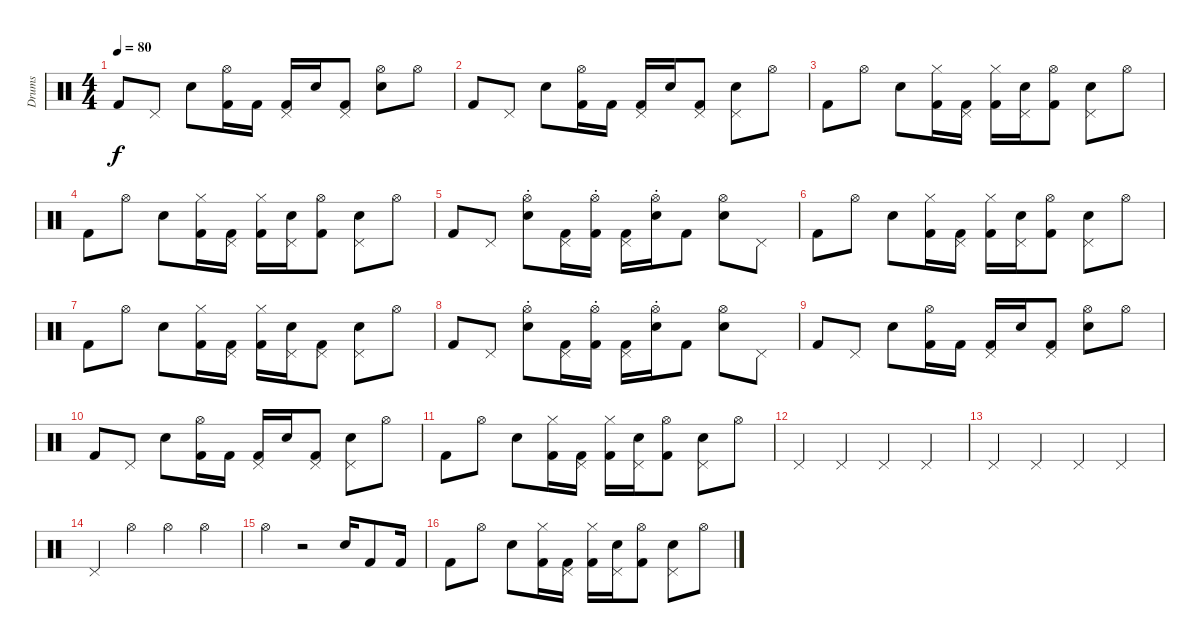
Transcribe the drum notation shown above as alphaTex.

\track ("Drums" "Drums") {instrument percussion}
\staff {score}
\articulation defaults
\ts (4 4)
\tempo 80
\clef neutral
\ks c "Kick (hit) 2".8{dy f} "Pedal Hi-Hat (hit)".8 "Snare (hit) 2".8
("Hi-Hat (open)" "Kick (hit) 2").16 "Kick (hit) 2".16 ("Pedal Hi-Hat (hit)" "Kick (hit) 2").16 "Snare (hit) 2".16 ("Pedal Hi-Hat (hit)" "Kick (hit) 2").8 ("Hi-Hat (open)" "Snare (hit) 2").8 "Hi-Hat (open)".8 |
"Kick (hit) 2".8 "Pedal Hi-Hat (hit)".8 "Snare (hit) 2".8 ("Hi-Hat (open)" "Kick (hit) 2").16 "Kick (hit) 2".16 ("Pedal Hi-Hat (hit)" "Kick (hit) 2").16 "Snare (hit) 2".16 ("Pedal Hi-Hat (hit)" "Kick (hit) 2").8 ("Pedal Hi-Hat (hit)" "Snare (hit) 2").8 "Hi-Hat (open)".8 |
"Kick (hit) 2".8 "Hi-Hat (open)".8 "Snare (hit) 2".8 ("Hi-Hat (closed)" "Kick (hit) 2").16 ("Pedal Hi-Hat (hit)" "Kick (hit) 2").16 ("Hi-Hat (closed)" "Kick (hit) 2").16 ("Pedal Hi-Hat (hit)" "Snare (hit) 2").16 ("Hi-Hat (open)" "Kick (hit) 2").8 ("Pedal Hi-Hat (hit)" "Snare (hit) 2").8 "Hi-Hat (open)".8 |
"Kick (hit) 2".8 "Hi-Hat (open)".8 "Snare (hit) 2".8 ("Hi-Hat (closed)" "Kick (hit) 2").16 ("Pedal Hi-Hat (hit)" "Kick (hit) 2").16 ("Hi-Hat (closed)" "Kick (hit) 2").16 ("Pedal Hi-Hat (hit)" "Snare (hit) 2").16 ("Hi-Hat (open)" "Kick (hit) 2").8 ("Pedal Hi-Hat (hit)" "Snare (hit) 2").8 "Hi-Hat (open)".8 |
"Kick (hit) 2".8 "Pedal Hi-Hat (hit)".8 ("Hi-Hat (open)"{st} "Snare (hit) 2").8 ("Pedal Hi-Hat (hit)" "Kick (hit) 2").16 ("Hi-Hat (open)"{st} "Kick (hit) 2").16 ("Pedal Hi-Hat (hit)" "Kick (hit) 2").16 ("Hi-Hat (open)"{st} "Snare (hit) 2").16 "Kick (hit) 2".8 ("Hi-Hat (open)" "Snare (hit) 2").8 "Pedal Hi-Hat (hit)".8 |
"Kick (hit) 2".8 "Hi-Hat (open)".8 "Snare (hit) 2".8 ("Hi-Hat (closed)" "Kick (hit) 2").16 ("Pedal Hi-Hat (hit)" "Kick (hit) 2").16 ("Hi-Hat (closed)" "Kick (hit) 2").16 ("Pedal Hi-Hat (hit)" "Snare (hit) 2").16 ("Hi-Hat (open)" "Kick (hit) 2").8 ("Pedal Hi-Hat (hit)" "Snare (hit) 2").8 "Hi-Hat (open)".8 |
"Kick (hit) 2".8 "Hi-Hat (open)".8 "Snare (hit) 2".8 ("Hi-Hat (closed)" "Kick (hit) 2").16 ("Pedal Hi-Hat (hit)" "Kick (hit) 2").16 ("Hi-Hat (closed)" "Kick (hit) 2").16 ("Pedal Hi-Hat (hit)" "Snare (hit) 2").16 ("Pedal Hi-Hat (hit)" "Kick (hit) 2").8 ("Pedal Hi-Hat (hit)" "Snare (hit) 2").8 "Hi-Hat (open)".8 |
"Kick (hit) 2".8 "Pedal Hi-Hat (hit)".8 ("Hi-Hat (open)"{st} "Snare (hit) 2").8 ("Pedal Hi-Hat (hit)" "Kick (hit) 2").16 ("Hi-Hat (open)"{st} "Kick (hit) 2").16 ("Pedal Hi-Hat (hit)" "Kick (hit) 2").16 ("Hi-Hat (open)"{st} "Snare (hit) 2").16 "Kick (hit) 2".8 ("Hi-Hat (open)" "Snare (hit) 2").8 "Pedal Hi-Hat (hit)".8 |
"Kick (hit) 2".8 "Pedal Hi-Hat (hit)".8 "Snare (hit) 2".8 ("Hi-Hat (open)" "Kick (hit) 2").16 "Kick (hit) 2".16 ("Pedal Hi-Hat (hit)" "Kick (hit) 2").16 "Snare (hit) 2".16 ("Pedal Hi-Hat (hit)" "Kick (hit) 2").8 ("Hi-Hat (open)" "Snare (hit) 2").8 "Hi-Hat (open)".8 |
"Kick (hit) 2".8 "Pedal Hi-Hat (hit)".8 "Snare (hit) 2".8 ("Hi-Hat (open)" "Kick (hit) 2").16 "Kick (hit) 2".16 ("Pedal Hi-Hat (hit)" "Kick (hit) 2").16 "Snare (hit) 2".16 ("Pedal Hi-Hat (hit)" "Kick (hit) 2").8 ("Pedal Hi-Hat (hit)" "Snare (hit) 2").8 "Hi-Hat (open)".8 |
"Kick (hit) 2".8 "Hi-Hat (open)".8 "Snare (hit) 2".8 ("Hi-Hat (closed)" "Kick (hit) 2").16 ("Pedal Hi-Hat (hit)" "Kick (hit) 2").16 ("Hi-Hat (closed)" "Kick (hit) 2").16 ("Pedal Hi-Hat (hit)" "Snare (hit) 2").16 ("Hi-Hat (open)" "Kick (hit) 2").8 ("Pedal Hi-Hat (hit)" "Snare (hit) 2").8 "Hi-Hat (open)".8 |
"Pedal Hi-Hat (hit)".4 "Pedal Hi-Hat (hit)".4 "Pedal Hi-Hat (hit)".4 "Pedal Hi-Hat (hit)".4 |
"Pedal Hi-Hat (hit)".4 "Pedal Hi-Hat (hit)".4 "Pedal Hi-Hat (hit)".4 "Pedal Hi-Hat (hit)".4 |
"Pedal Hi-Hat (hit)".4 "Hi-Hat (open)".4 "Hi-Hat (open)".4 "Hi-Hat (open)".4 |
"Hi-Hat (open)".4 r.2 "Snare (hit) 2".16 "Kick (hit) 2".8 "Kick (hit) 2".16 |
"Kick (hit) 2".8 "Hi-Hat (open)".8 "Snare (hit) 2".8 ("Hi-Hat (closed)" "Kick (hit) 2").16 ("Pedal Hi-Hat (hit)" "Kick (hit) 2").16 ("Hi-Hat (closed)" "Kick (hit) 2").16 ("Pedal Hi-Hat (hit)" "Snare (hit) 2").16 ("Hi-Hat (open)" "Kick (hit) 2").8 ("Pedal Hi-Hat (hit)" "Snare (hit) 2").8 "Hi-Hat (open)".8
